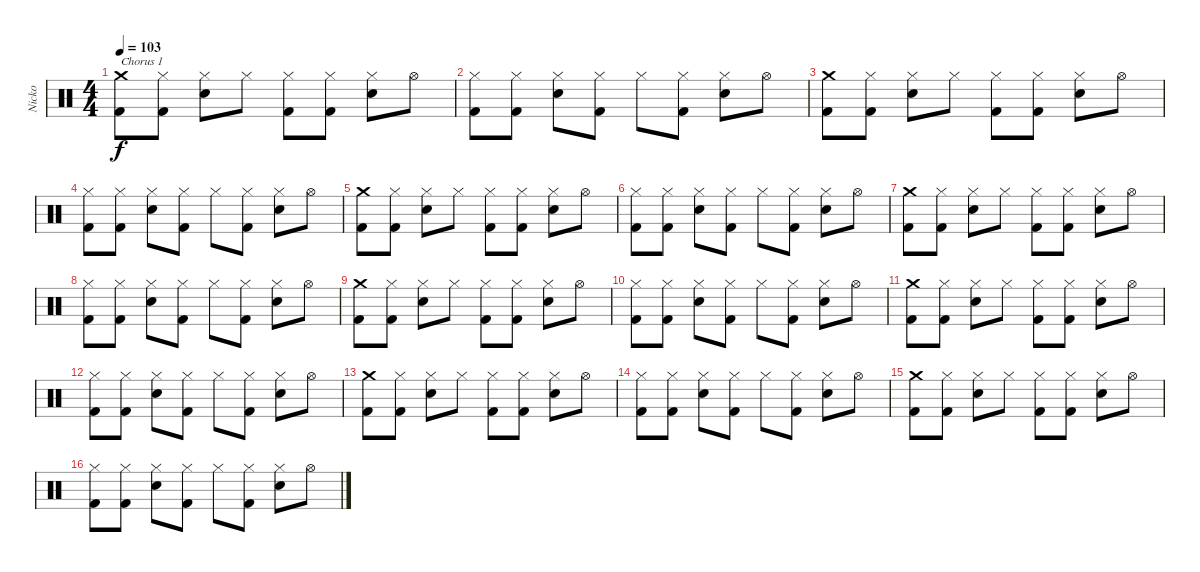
\track ("Nicko" "Nicko") {instrument percussion}
\staff {score}
\articulation defaults
\ts (4 4)
\tempo 103
\clef neutral
\ks c
("Crash medium (hit)" "Kick (hit) 2").8{txt "Chorus 1" dy f} ("Hi-Hat (closed)" "Kick (hit) 2").8 ("Hi-Hat (closed)" "Snare (hit) 2").8 "Hi-Hat (closed)".8 ("Hi-Hat (closed)" "Kick (hit) 2").8 ("Hi-Hat (closed)" "Kick (hit) 2").8 ("Hi-Hat (closed)" "Snare (hit) 2").8 "Hi-Hat (open)".8 |
("Hi-Hat (closed)" "Kick (hit) 2").8 ("Hi-Hat (closed)" "Kick (hit) 2").8 ("Hi-Hat (closed)" "Snare (hit) 2").8 ("Hi-Hat (closed)" "Kick (hit) 2").8 "Hi-Hat (closed)".8 ("Hi-Hat (closed)" "Kick (hit) 2").8 ("Hi-Hat (closed)" "Snare (hit) 2").8 "Hi-Hat (open)".8 |
("Crash medium (hit)" "Kick (hit) 2").8 ("Hi-Hat (closed)" "Kick (hit) 2").8 ("Hi-Hat (closed)" "Snare (hit) 2").8 "Hi-Hat (closed)".8 ("Hi-Hat (closed)" "Kick (hit) 2").8 ("Hi-Hat (closed)" "Kick (hit) 2").8 ("Hi-Hat (closed)" "Snare (hit) 2").8 "Hi-Hat (open)".8 |
("Hi-Hat (closed)" "Kick (hit) 2").8 ("Hi-Hat (closed)" "Kick (hit) 2").8 ("Hi-Hat (closed)" "Snare (hit) 2").8 ("Hi-Hat (closed)" "Kick (hit) 2").8 "Hi-Hat (closed)".8 ("Hi-Hat (closed)" "Kick (hit) 2").8 ("Hi-Hat (closed)" "Snare (hit) 2").8 "Hi-Hat (open)".8 |
("Crash medium (hit)" "Kick (hit) 2").8 ("Hi-Hat (closed)" "Kick (hit) 2").8 ("Hi-Hat (closed)" "Snare (hit) 2").8 "Hi-Hat (closed)".8 ("Hi-Hat (closed)" "Kick (hit) 2").8 ("Hi-Hat (closed)" "Kick (hit) 2").8 ("Hi-Hat (closed)" "Snare (hit) 2").8 "Hi-Hat (open)".8 |
("Hi-Hat (closed)" "Kick (hit) 2").8 ("Hi-Hat (closed)" "Kick (hit) 2").8 ("Hi-Hat (closed)" "Snare (hit) 2").8 ("Hi-Hat (closed)" "Kick (hit) 2").8 "Hi-Hat (closed)".8 ("Hi-Hat (closed)" "Kick (hit) 2").8 ("Hi-Hat (closed)" "Snare (hit) 2").8 "Hi-Hat (open)".8 |
("Crash medium (hit)" "Kick (hit) 2").8 ("Hi-Hat (closed)" "Kick (hit) 2").8 ("Hi-Hat (closed)" "Snare (hit) 2").8 "Hi-Hat (closed)".8 ("Hi-Hat (closed)" "Kick (hit) 2").8 ("Hi-Hat (closed)" "Kick (hit) 2").8 ("Hi-Hat (closed)" "Snare (hit) 2").8 "Hi-Hat (open)".8 |
("Hi-Hat (closed)" "Kick (hit) 2").8 ("Hi-Hat (closed)" "Kick (hit) 2").8 ("Hi-Hat (closed)" "Snare (hit) 2").8 ("Hi-Hat (closed)" "Kick (hit) 2").8 "Hi-Hat (closed)".8 ("Hi-Hat (closed)" "Kick (hit) 2").8 ("Hi-Hat (closed)" "Snare (hit) 2").8 "Hi-Hat (open)".8 |
("Crash medium (hit)" "Kick (hit) 2").8 ("Hi-Hat (closed)" "Kick (hit) 2").8 ("Hi-Hat (closed)" "Snare (hit) 2").8 "Hi-Hat (closed)".8 ("Hi-Hat (closed)" "Kick (hit) 2").8 ("Hi-Hat (closed)" "Kick (hit) 2").8 ("Hi-Hat (closed)" "Snare (hit) 2").8 "Hi-Hat (open)".8 |
("Hi-Hat (closed)" "Kick (hit) 2").8 ("Hi-Hat (closed)" "Kick (hit) 2").8 ("Hi-Hat (closed)" "Snare (hit) 2").8 ("Hi-Hat (closed)" "Kick (hit) 2").8 "Hi-Hat (closed)".8 ("Hi-Hat (closed)" "Kick (hit) 2").8 ("Hi-Hat (closed)" "Snare (hit) 2").8 "Hi-Hat (open)".8 |
("Crash medium (hit)" "Kick (hit) 2").8 ("Hi-Hat (closed)" "Kick (hit) 2").8 ("Hi-Hat (closed)" "Snare (hit) 2").8 "Hi-Hat (closed)".8 ("Hi-Hat (closed)" "Kick (hit) 2").8 ("Hi-Hat (closed)" "Kick (hit) 2").8 ("Hi-Hat (closed)" "Snare (hit) 2").8 "Hi-Hat (open)".8 |
("Hi-Hat (closed)" "Kick (hit) 2").8 ("Hi-Hat (closed)" "Kick (hit) 2").8 ("Hi-Hat (closed)" "Snare (hit) 2").8 ("Hi-Hat (closed)" "Kick (hit) 2").8 "Hi-Hat (closed)".8 ("Hi-Hat (closed)" "Kick (hit) 2").8 ("Hi-Hat (closed)" "Snare (hit) 2").8 "Hi-Hat (open)".8 |
("Crash medium (hit)" "Kick (hit) 2").8 ("Hi-Hat (closed)" "Kick (hit) 2").8 ("Hi-Hat (closed)" "Snare (hit) 2").8 "Hi-Hat (closed)".8 ("Hi-Hat (closed)" "Kick (hit) 2").8 ("Hi-Hat (closed)" "Kick (hit) 2").8 ("Hi-Hat (closed)" "Snare (hit) 2").8 "Hi-Hat (open)".8 |
("Hi-Hat (closed)" "Kick (hit) 2").8 ("Hi-Hat (closed)" "Kick (hit) 2").8 ("Hi-Hat (closed)" "Snare (hit) 2").8 ("Hi-Hat (closed)" "Kick (hit) 2").8 "Hi-Hat (closed)".8 ("Hi-Hat (closed)" "Kick (hit) 2").8 ("Hi-Hat (closed)" "Snare (hit) 2").8 "Hi-Hat (open)".8 |
("Crash medium (hit)" "Kick (hit) 2").8 ("Hi-Hat (closed)" "Kick (hit) 2").8 ("Hi-Hat (closed)" "Snare (hit) 2").8 "Hi-Hat (closed)".8 ("Hi-Hat (closed)" "Kick (hit) 2").8 ("Hi-Hat (closed)" "Kick (hit) 2").8 ("Hi-Hat (closed)" "Snare (hit) 2").8 "Hi-Hat (open)".8 |
("Hi-Hat (closed)" "Kick (hit) 2").8 ("Hi-Hat (closed)" "Kick (hit) 2").8 ("Hi-Hat (closed)" "Snare (hit) 2").8 ("Hi-Hat (closed)" "Kick (hit) 2").8 "Hi-Hat (closed)".8 ("Hi-Hat (closed)" "Kick (hit) 2").8 ("Hi-Hat (closed)" "Snare (hit) 2").8 "Hi-Hat (open)".8
